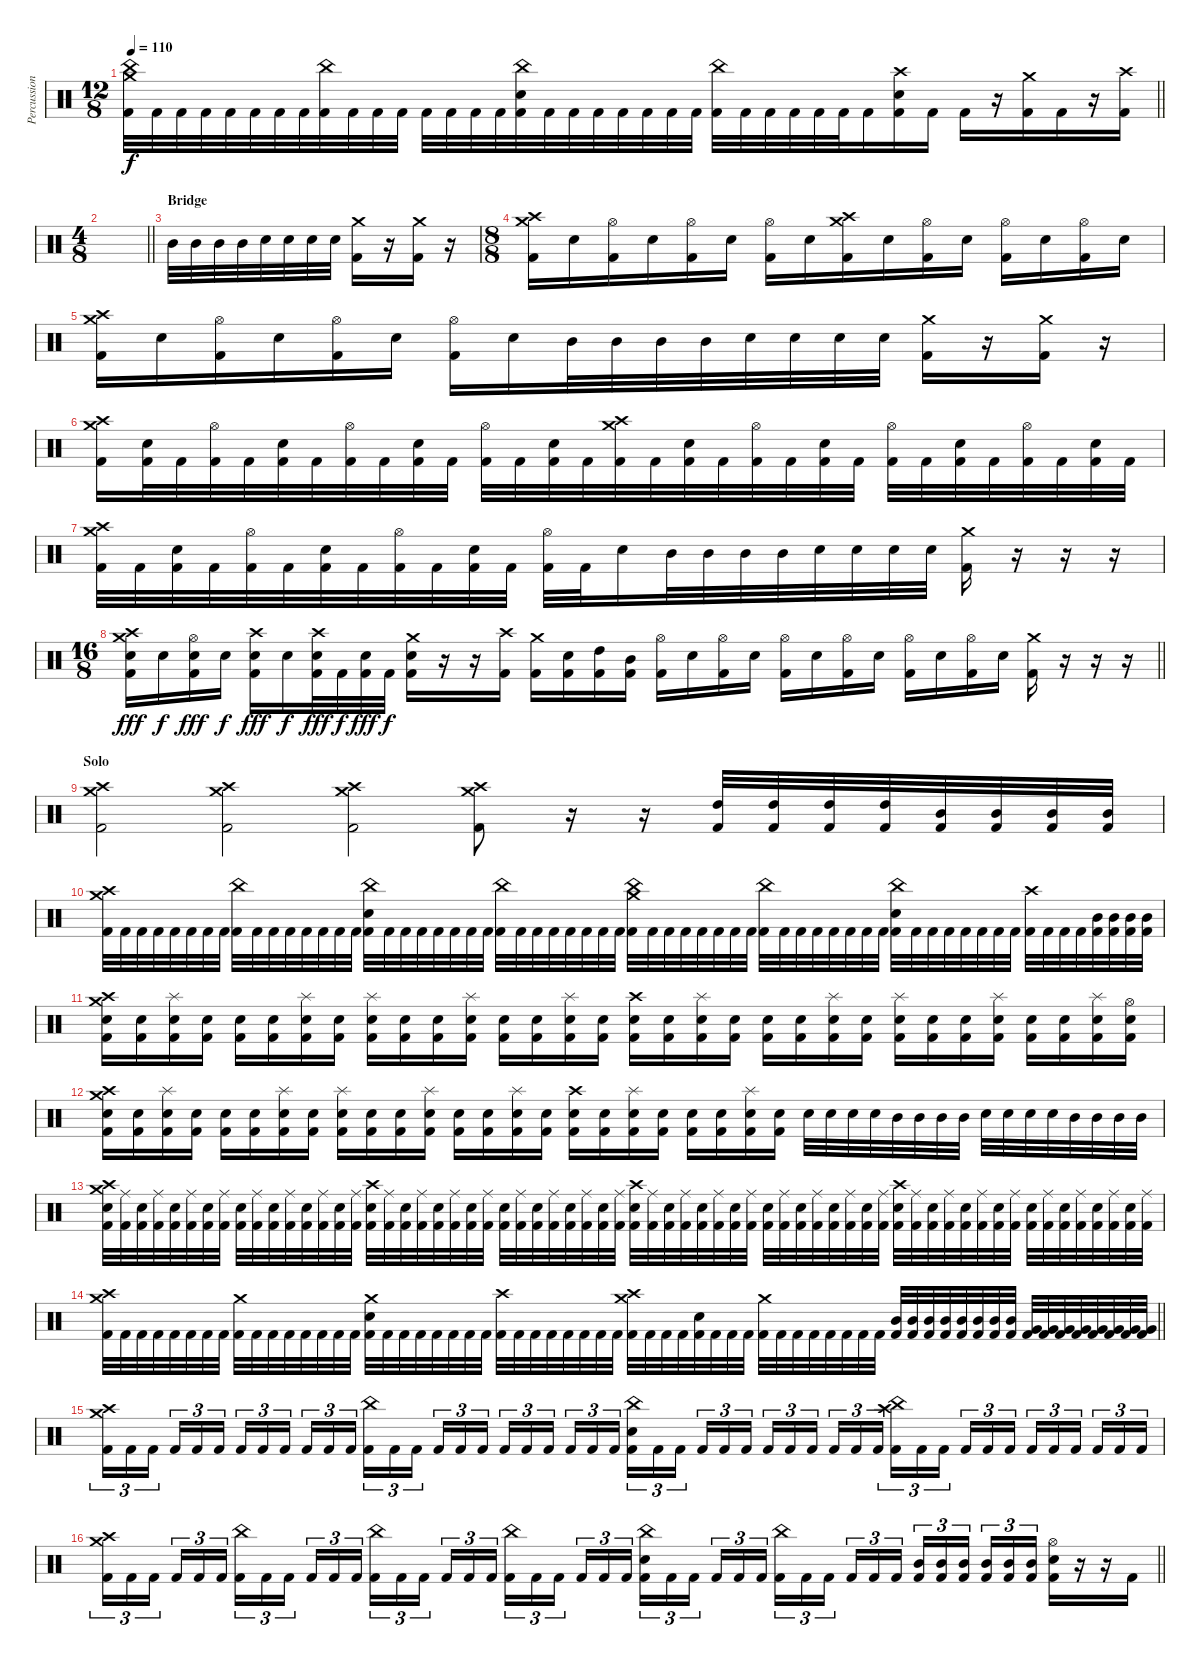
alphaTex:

\track ("Percussion" "Percussion") {instrument percussion}
\staff {score}
\articulation defaults
\ts (12 8)
\tempo 110
\clef neutral
\barLineRight lightlight
\ks c
("Crash medium (hit)" "China (hit)" "Kick (hit) 2").32{dy f} "Kick (hit) 2".32 "Kick (hit) 2".32 "Kick (hit) 2".32 "Kick (hit) 2".32 "Kick (hit) 2".32 "Kick (hit) 2".32 "Kick (hit) 2".32 ("China (hit)" "Kick (hit) 2").32 "Kick (hit) 2".32 "Kick (hit) 2".32 "Kick (hit) 2".32 "Kick (hit) 2".32 "Kick (hit) 2".32 "Kick (hit) 2".32 "Kick (hit) 2".32 ("China (hit)" "Snare (hit) 2" "Kick (hit) 2").32 "Kick (hit) 2".32 "Kick (hit) 2".32 "Kick (hit) 2".32 "Kick (hit) 2".32 "Kick (hit) 2".32 "Kick (hit) 2".32 "Kick (hit) 2".32 ("China (hit)" "Kick (hit) 2").32 "Kick (hit) 2".32 "Kick (hit) 2".32 "Kick (hit) 2".32 "Kick (hit) 2".32 "Kick (hit) 2".32 "Kick (hit) 2".16 ("Crash high (hit)" "Snare (hit) 2" "Kick (hit) 2").16 "Kick (hit) 2".16 "Kick (hit) 2".16 r.16 ("Crash medium (hit)" "Kick (hit) 2").16 "Kick (hit) 2".16 r.16 ("Crash high (hit)" "Kick (hit) 2").16 |
\ts (4 8)
\barLineRight lightlight
|
\section ("" "Bridge")
"Mid Tom (hit)".32 "Mid Tom (hit)".32 "Mid Tom (hit)".32 "Mid Tom (hit)".32 "Snare (hit) 2".32 "Snare (hit) 2".32 "Snare (hit) 2".32 "Snare (hit) 2".32 ("Crash medium (hit)" "Kick (hit) 2").16 r.16{volume 0} ("Crash medium (hit)" "Kick (hit) 2").16{volume 13} r.16{volume 0} |
\ts (8 8)
("Crash medium (hit)" "Crash high (hit)" "Kick (hit) 2").16{volume 13} "Snare (hit) 2".16 ("Hi-Hat (open)" "Kick (hit) 2").16 "Snare (hit) 2".16 ("Hi-Hat (open)" "Kick (hit) 2").16 "Snare (hit) 2".16 ("Hi-Hat (open)" "Kick (hit) 2").16 "Snare (hit) 2".16 ("Crash medium (hit)" "Crash high (hit)" "Kick (hit) 2").16 "Snare (hit) 2".16 ("Hi-Hat (open)" "Kick (hit) 2").16 "Snare (hit) 2".16 ("Hi-Hat (open)" "Kick (hit) 2").16 "Snare (hit) 2".16 ("Hi-Hat (open)" "Kick (hit) 2").16 "Snare (hit) 2".16 |
("Crash medium (hit)" "Crash high (hit)" "Kick (hit) 2").16 "Snare (hit) 2".16 ("Hi-Hat (open)" "Kick (hit) 2").16 "Snare (hit) 2".16 ("Hi-Hat (open)" "Kick (hit) 2").16 "Snare (hit) 2".16 ("Hi-Hat (open)" "Kick (hit) 2").16 "Snare (hit) 2".16 "Mid Tom (hit)".32 "Mid Tom (hit)".32 "Mid Tom (hit)".32 "Mid Tom (hit)".32 "Snare (hit) 2".32 "Snare (hit) 2".32 "Snare (hit) 2".32 "Snare (hit) 2".32 ("Crash medium (hit)" "Kick (hit) 2").16 r.16{volume 0} ("Crash medium (hit)" "Kick (hit) 2").16{volume 13} r.16{volume 0} |
("Crash medium (hit)" "Crash high (hit)" "Kick (hit) 2").16{volume 13} ("Snare (hit) 2" "Kick (hit) 2").32 "Kick (hit) 2".32 ("Hi-Hat (open)" "Kick (hit) 2").32 "Kick (hit) 2".32 ("Snare (hit) 2" "Kick (hit) 2").32 "Kick (hit) 2".32 ("Hi-Hat (open)" "Kick (hit) 2").32 "Kick (hit) 2".32 ("Snare (hit) 2" "Kick (hit) 2").32 "Kick (hit) 2".32 ("Hi-Hat (open)" "Kick (hit) 2").32 "Kick (hit) 2".32 ("Snare (hit) 2" "Kick (hit) 2").32 "Kick (hit) 2".32 ("Crash medium (hit)" "Crash high (hit)" "Kick (hit) 2").32 "Kick (hit) 2".32 ("Snare (hit) 2" "Kick (hit) 2").32 "Kick (hit) 2".32 ("Hi-Hat (open)" "Kick (hit) 2").32 "Kick (hit) 2".32 ("Snare (hit) 2" "Kick (hit) 2").32 "Kick (hit) 2".32 ("Hi-Hat (open)" "Kick (hit) 2").32 "Kick (hit) 2".32 ("Snare (hit) 2" "Kick (hit) 2").32 "Kick (hit) 2".32 ("Hi-Hat (open)" "Kick (hit) 2").32 "Kick (hit) 2".32 ("Snare (hit) 2" "Kick (hit) 2").32 "Kick (hit) 2".32 |
("Crash medium (hit)" "Crash high (hit)" "Kick (hit) 2").32 "Kick (hit) 2".32 ("Snare (hit) 2" "Kick (hit) 2").32 "Kick (hit) 2".32 ("Hi-Hat (open)" "Kick (hit) 2").32 "Kick (hit) 2".32 ("Snare (hit) 2" "Kick (hit) 2").32 "Kick (hit) 2".32 ("Hi-Hat (open)" "Kick (hit) 2").32 "Kick (hit) 2".32 ("Snare (hit) 2" "Kick (hit) 2").32 "Kick (hit) 2".32 ("Hi-Hat (open)" "Kick (hit) 2").32 "Kick (hit) 2".32 "Snare (hit) 2".16 "Mid Tom (hit)".32 "Mid Tom (hit)".32 "Mid Tom (hit)".32 "Mid Tom (hit)".32 "Snare (hit) 2".32 "Snare (hit) 2".32 "Snare (hit) 2".32 "Snare (hit) 2".32 ("Crash medium (hit)" "Kick (hit) 2").16 r.16{volume 0} r.16 r.16 |
\ts (16 8)
\barLineRight lightlight
("Crash medium (hit)" "Crash high (hit)" "Snare (hit) 2" "Kick (hit) 2").16{dy fff volume 13} "Snare (hit) 2".16{dy f} ("Hi-Hat (open)" "Snare (hit) 2" "Kick (hit) 2").16{dy fff} "Snare (hit) 2".16{dy f} ("Crash high (hit)" "Snare (hit) 2" "Kick (hit) 2").16{dy fff} "Snare (hit) 2".16{dy f} ("Crash high (hit)" "Snare (hit) 2" "Kick (hit) 2").32{dy fff} "Kick (hit) 2".32{dy f} ("Snare (hit) 2" "Kick (hit) 2").32{dy fff} "Kick (hit) 2".32{dy f} ("Crash medium (hit)" "Snare (hit) 2" "Kick (hit) 2").16 r.16 r.16 ("Crash high (hit)" "Kick (hit) 2").16 ("Crash medium (hit)" "Kick (hit) 2").16 ("Snare (hit) 2" "Kick (hit) 2").16 ("High Tom (hit)" "Kick (hit) 2").16 ("Mid Tom (hit)" "Kick (hit) 2").16 ("Hi-Hat (open)" "Kick (hit) 2").16 "Snare (hit) 2".16 ("Hi-Hat (open)" "Kick (hit) 2").16 "Snare (hit) 2".16 ("Hi-Hat (open)" "Kick (hit) 2").16 "Snare (hit) 2".16 ("Hi-Hat (open)" "Kick (hit) 2").16 "Snare (hit) 2".16 ("Hi-Hat (open)" "Kick (hit) 2").16 "Snare (hit) 2".16 ("Hi-Hat (open)" "Kick (hit) 2").16 "Snare (hit) 2".16 ("Crash medium (hit)" "Kick (hit) 2").16 r.16 r.16 r.16 |
\section ("" "Solo")
("Crash high (hit)" "Crash medium (hit)" "Kick (hit) 2").2 ("Crash high (hit)" "Crash medium (hit)" "Kick (hit) 2").2 ("Crash medium (hit)" "Crash high (hit)" "Kick (hit) 2").2 ("Crash medium (hit)" "Crash high (hit)" "Kick (hit) 2").8 r.16 r.16 ("High Tom (hit)" "Kick (hit) 2").32 ("High Tom (hit)" "Kick (hit) 2").32 ("High Tom (hit)" "Kick (hit) 2").32 ("High Tom (hit)" "Kick (hit) 2").32 ("Mid Tom (hit)" "Kick (hit) 2").32 ("Mid Tom (hit)" "Kick (hit) 2").32 ("Mid Tom (hit)" "Kick (hit) 2").32 ("Mid Tom (hit)" "Kick (hit) 2").32 |
("Crash medium (hit)" "Crash high (hit)" "Kick (hit) 2").32 "Kick (hit) 2".32 "Kick (hit) 2".32 "Kick (hit) 2".32 "Kick (hit) 2".32 "Kick (hit) 2".32 "Kick (hit) 2".32 "Kick (hit) 2".32 ("China (hit)" "Kick (hit) 2").32 "Kick (hit) 2".32 "Kick (hit) 2".32 "Kick (hit) 2".32 "Kick (hit) 2".32 "Kick (hit) 2".32 "Kick (hit) 2".32 "Kick (hit) 2".32 ("China (hit)" "Snare (hit) 2" "Kick (hit) 2").32 "Kick (hit) 2".32 "Kick (hit) 2".32 "Kick (hit) 2".32 "Kick (hit) 2".32 "Kick (hit) 2".32 "Kick (hit) 2".32 "Kick (hit) 2".32 ("China (hit)" "Kick (hit) 2").32 "Kick (hit) 2".32 "Kick (hit) 2".32 "Kick (hit) 2".32 "Kick (hit) 2".32 "Kick (hit) 2".32 "Kick (hit) 2".32 "Kick (hit) 2".32 ("Crash medium (hit)" "China (hit)" "Kick (hit) 2").32 "Kick (hit) 2".32 "Kick (hit) 2".32 "Kick (hit) 2".32 "Kick (hit) 2".32 "Kick (hit) 2".32 "Kick (hit) 2".32 "Kick (hit) 2".32 ("China (hit)" "Kick (hit) 2").32 "Kick (hit) 2".32 "Kick (hit) 2".32 "Kick (hit) 2".32 "Kick (hit) 2".32 "Kick (hit) 2".32 "Kick (hit) 2".32 "Kick (hit) 2".32 ("China (hit)" "Snare (hit) 2" "Kick (hit) 2").32 "Kick (hit) 2".32 "Kick (hit) 2".32 "Kick (hit) 2".32 "Kick (hit) 2".32 "Kick (hit) 2".32 "Kick (hit) 2".32 "Kick (hit) 2".32 ("Crash high (hit)" "Kick (hit) 2").32 "Kick (hit) 2".32 "Kick (hit) 2".32 "Kick (hit) 2".32 ("Mid Tom (hit)" "Kick (hit) 2").32 ("Mid Tom (hit)" "Kick (hit) 2").32 ("Mid Tom (hit)" "Kick (hit) 2").32 ("Mid Tom (hit)" "Kick (hit) 2").32 |
("Crash medium (hit)" "Crash high (hit)" "Snare (hit) 2" "Kick (hit) 2").16 ("Snare (hit) 2" "Kick (hit) 2").16 ("Splash (hit)" "Snare (hit) 2" "Kick (hit) 2").16 ("Snare (hit) 2" "Kick (hit) 2").16 ("Snare (hit) 2" "Kick (hit) 2").16 ("Snare (hit) 2" "Kick (hit) 2").16 ("Splash (hit)" "Snare (hit) 2" "Kick (hit) 2").16 ("Snare (hit) 2" "Kick (hit) 2").16 ("Splash (hit)" "Snare (hit) 2" "Kick (hit) 2").16 ("Snare (hit) 2" "Kick (hit) 2").16 ("Snare (hit) 2" "Kick (hit) 2").16 ("Splash (hit)" "Snare (hit) 2" "Kick (hit) 2").16 ("Snare (hit) 2" "Kick (hit) 2").16 ("Snare (hit) 2" "Kick (hit) 2").16 ("Splash (hit)" "Snare (hit) 2" "Kick (hit) 2").16 ("Snare (hit) 2" "Kick (hit) 2").16 ("Crash high (hit)" "Snare (hit) 2" "Kick (hit) 2").16 ("Snare (hit) 2" "Kick (hit) 2").16 ("Splash (hit)" "Snare (hit) 2" "Kick (hit) 2").16 ("Snare (hit) 2" "Kick (hit) 2").16 ("Snare (hit) 2" "Kick (hit) 2").16 ("Snare (hit) 2" "Kick (hit) 2").16 ("Splash (hit)" "Snare (hit) 2" "Kick (hit) 2").16 ("Snare (hit) 2" "Kick (hit) 2").16 ("Splash (hit)" "Snare (hit) 2" "Kick (hit) 2").16 ("Snare (hit) 2" "Kick (hit) 2").16 ("Snare (hit) 2" "Kick (hit) 2").16 ("Splash (hit)" "Snare (hit) 2" "Kick (hit) 2").16 ("Snare (hit) 2" "Kick (hit) 2").16 ("Snare (hit) 2" "Kick (hit) 2").16 ("Splash (hit)" "Snare (hit) 2" "Kick (hit) 2").16 ("Hi-Hat (open)" "Snare (hit) 2" "Kick (hit) 2").16 |
("Crash medium (hit)" "Crash high (hit)" "Snare (hit) 2" "Kick (hit) 2").16 ("Snare (hit) 2" "Kick (hit) 2").16 ("Splash (hit)" "Snare (hit) 2" "Kick (hit) 2").16 ("Snare (hit) 2" "Kick (hit) 2").16 ("Snare (hit) 2" "Kick (hit) 2").16 ("Snare (hit) 2" "Kick (hit) 2").16 ("Splash (hit)" "Snare (hit) 2" "Kick (hit) 2").16 ("Snare (hit) 2" "Kick (hit) 2").16 ("Splash (hit)" "Snare (hit) 2" "Kick (hit) 2").16 ("Snare (hit) 2" "Kick (hit) 2").16 ("Snare (hit) 2" "Kick (hit) 2").16 ("Splash (hit)" "Snare (hit) 2" "Kick (hit) 2").16 ("Snare (hit) 2" "Kick (hit) 2").16 ("Snare (hit) 2" "Kick (hit) 2").16 ("Splash (hit)" "Snare (hit) 2" "Kick (hit) 2").16 ("Snare (hit) 2" "Kick (hit) 2").16 ("Crash high (hit)" "Snare (hit) 2" "Kick (hit) 2").16 ("Snare (hit) 2" "Kick (hit) 2").16 ("Splash (hit)" "Snare (hit) 2" "Kick (hit) 2").16 ("Snare (hit) 2" "Kick (hit) 2").16 ("Snare (hit) 2" "Kick (hit) 2").16 ("Snare (hit) 2" "Kick (hit) 2").16 ("Splash (hit)" "Snare (hit) 2" "Kick (hit) 2").16 ("Snare (hit) 2" "Kick (hit) 2").16 "Snare (hit) 2".32 "Snare (hit) 2".32 "Snare (hit) 2".32 "Snare (hit) 2".32 "Mid Tom (hit)".32 "Mid Tom (hit)".32 "Mid Tom (hit)".32 "Mid Tom (hit)".32 "Snare (hit) 2".32 "Snare (hit) 2".32 "Snare (hit) 2".32 "Snare (hit) 2".32 "Mid Tom (hit)".32 "Mid Tom (hit)".32 "Mid Tom (hit)".32 "Mid Tom (hit)".32 |
("Crash medium (hit)" "Crash high (hit)" "Snare (hit) 2" "Kick (hit) 2").32 ("Ride (middle)" "Kick (hit) 2").32 ("Snare (hit) 2" "Kick (hit) 2").32 ("Ride (middle)" "Kick (hit) 2").32 ("Snare (hit) 2" "Kick (hit) 2").32 ("Ride (middle)" "Kick (hit) 2").32 ("Snare (hit) 2" "Kick (hit) 2").32 ("Ride (middle)" "Kick (hit) 2").32 ("Snare (hit) 2" "Kick (hit) 2").32 ("Ride (middle)" "Kick (hit) 2").32 ("Snare (hit) 2" "Kick (hit) 2").32 ("Ride (middle)" "Kick (hit) 2").32 ("Snare (hit) 2" "Kick (hit) 2").32 ("Ride (middle)" "Kick (hit) 2").32 ("Snare (hit) 2" "Kick (hit) 2").32 ("Ride (middle)" "Kick (hit) 2").32 ("Crash high (hit)" "Snare (hit) 2" "Kick (hit) 2").32 ("Ride (middle)" "Kick (hit) 2").32 ("Snare (hit) 2" "Kick (hit) 2").32 ("Ride (middle)" "Kick (hit) 2").32 ("Snare (hit) 2" "Kick (hit) 2").32 ("Ride (middle)" "Kick (hit) 2").32 ("Snare (hit) 2" "Kick (hit) 2").32 ("Ride (middle)" "Kick (hit) 2").32 ("Snare (hit) 2" "Kick (hit) 2").32 ("Ride (middle)" "Kick (hit) 2").32 ("Snare (hit) 2" "Kick (hit) 2").32 ("Ride (middle)" "Kick (hit) 2").32 ("Snare (hit) 2" "Kick (hit) 2").32 ("Ride (middle)" "Kick (hit) 2").32 ("Snare (hit) 2" "Kick (hit) 2").32 ("Ride (middle)" "Kick (hit) 2").32 ("Crash high (hit)" "Snare (hit) 2" "Kick (hit) 2").32 ("Ride (middle)" "Kick (hit) 2").32 ("Snare (hit) 2" "Kick (hit) 2").32 ("Ride (middle)" "Kick (hit) 2").32 ("Snare (hit) 2" "Kick (hit) 2").32 ("Ride (middle)" "Kick (hit) 2").32 ("Snare (hit) 2" "Kick (hit) 2").32 ("Ride (middle)" "Kick (hit) 2").32 ("Snare (hit) 2" "Kick (hit) 2").32 ("Ride (middle)" "Kick (hit) 2").32 ("Snare (hit) 2" "Kick (hit) 2").32 ("Ride (middle)" "Kick (hit) 2").32 ("Snare (hit) 2" "Kick (hit) 2").32 ("Ride (middle)" "Kick (hit) 2").32 ("Snare (hit) 2" "Kick (hit) 2").32 ("Ride (middle)" "Kick (hit) 2").32 ("Crash high (hit)" "Snare (hit) 2" "Kick (hit) 2").32 ("Ride (middle)" "Kick (hit) 2").32 ("Snare (hit) 2" "Kick (hit) 2").32 ("Ride (middle)" "Kick (hit) 2").32 ("Snare (hit) 2" "Kick (hit) 2").32 ("Ride (middle)" "Kick (hit) 2").32 ("Snare (hit) 2" "Kick (hit) 2").32 ("Ride (middle)" "Kick (hit) 2").32 ("Snare (hit) 2" "Kick (hit) 2").32 ("Ride (middle)" "Kick (hit) 2").32 ("Snare (hit) 2" "Kick (hit) 2").32 ("Ride (middle)" "Kick (hit) 2").32 ("Snare (hit) 2" "Kick (hit) 2").32 ("Ride (middle)" "Kick (hit) 2").32 ("Snare (hit) 2" "Kick (hit) 2").32 ("Ride (middle)" "Kick (hit) 2").32 |
\barLineRight lightlight
("Crash medium (hit)" "Crash high (hit)" "Kick (hit) 2").32 "Kick (hit) 2".32 "Kick (hit) 2".32 "Kick (hit) 2".32 "Kick (hit) 2".32 "Kick (hit) 2".32 "Kick (hit) 2".32 "Kick (hit) 2".32 ("Crash medium (hit)" "Kick (hit) 2").32 "Kick (hit) 2".32 "Kick (hit) 2".32 "Kick (hit) 2".32 "Kick (hit) 2".32 "Kick (hit) 2".32 "Kick (hit) 2".32 "Kick (hit) 2".32 ("Crash medium (hit)" "Snare (hit) 2" "Kick (hit) 2").32 "Kick (hit) 2".32 "Kick (hit) 2".32 "Kick (hit) 2".32 "Kick (hit) 2".32 "Kick (hit) 2".32 "Kick (hit) 2".32 "Kick (hit) 2".32 ("Crash high (hit)" "Kick (hit) 2").32 "Kick (hit) 2".32 "Kick (hit) 2".32 "Kick (hit) 2".32 "Kick (hit) 2".32 "Kick (hit) 2".32 "Kick (hit) 2".32 "Kick (hit) 2".32 ("Crash high (hit)" "Crash medium (hit)" "Kick (hit) 2").32 "Kick (hit) 2".32 "Kick (hit) 2".32 "Kick (hit) 2".32 ("Snare (hit) 2" "Kick (hit) 2").32 "Kick (hit) 2".32 "Kick (hit) 2".32 "Kick (hit) 2".32 ("Crash medium (hit)" "Kick (hit) 2").32 "Kick (hit) 2".32 "Kick (hit) 2".32 "Kick (hit) 2".32 "Kick (hit) 2".32 "Kick (hit) 2".32 "Kick (hit) 2".32 "Kick (hit) 2".32 ("Mid Tom (hit)" "Kick (hit) 2").32 ("Mid Tom (hit)" "Kick (hit) 2").32 ("Mid Tom (hit)" "Kick (hit) 2").32 ("Mid Tom (hit)" "Kick (hit) 2").32 ("Mid Tom (hit)" "Kick (hit) 2").32 ("Mid Tom (hit)" "Kick (hit) 2").32 ("Mid Tom (hit)" "Kick (hit) 2").32 ("Mid Tom (hit)" "Kick (hit) 2").32 ("Very Low Tom (hit)" "Kick (hit) 2").32 ("Very Low Tom (hit)" "Kick (hit) 2").32 ("Very Low Tom (hit)" "Kick (hit) 2").32 ("Very Low Tom (hit)" "Kick (hit) 2").32 ("Very Low Tom (hit)" "Kick (hit) 2").32 ("Very Low Tom (hit)" "Kick (hit) 2").32 ("Very Low Tom (hit)" "Kick (hit) 2").32 ("Very Low Tom (hit)" "Kick (hit) 2").32 |
("Crash medium (hit)" "Crash high (hit)" "Kick (hit) 2").16{tu (3 2)} "Kick (hit) 2".16{tu (3 2)} "Kick (hit) 2".16{tu (3 2)} "Kick (hit) 2".16{tu (3 2)} "Kick (hit) 2".16{tu (3 2)} "Kick (hit) 2".16{tu (3 2)} "Kick (hit) 2".16{tu (3 2)} "Kick (hit) 2".16{tu (3 2)} "Kick (hit) 2".16{tu (3 2)} "Kick (hit) 2".16{tu (3 2)} "Kick (hit) 2".16{tu (3 2)} "Kick (hit) 2".16{tu (3 2)} ("China (hit)" "Kick (hit) 2").16{tu (3 2)} "Kick (hit) 2".16{tu (3 2)} "Kick (hit) 2".16{tu (3 2)} "Kick (hit) 2".16{tu (3 2)} "Kick (hit) 2".16{tu (3 2)} "Kick (hit) 2".16{tu (3 2)} "Kick (hit) 2".16{tu (3 2)} "Kick (hit) 2".16{tu (3 2)} "Kick (hit) 2".16{tu (3 2)} "Kick (hit) 2".16{tu (3 2)} "Kick (hit) 2".16{tu (3 2)} "Kick (hit) 2".16{tu (3 2)} ("China (hit)" "Snare (hit) 2" "Kick (hit) 2").16{tu (3 2)} "Kick (hit) 2".16{tu (3 2)} "Kick (hit) 2".16{tu (3 2)} "Kick (hit) 2".16{tu (3 2)} "Kick (hit) 2".16{tu (3 2)} "Kick (hit) 2".16{tu (3 2)} "Kick (hit) 2".16{tu (3 2)} "Kick (hit) 2".16{tu (3 2)} "Kick (hit) 2".16{tu (3 2)} "Kick (hit) 2".16{tu (3 2)} "Kick (hit) 2".16{tu (3 2)} "Kick (hit) 2".16{tu (3 2)} ("Crash high (hit)" "China (hit)" "Kick (hit) 2").16{tu (3 2)} "Kick (hit) 2".16{tu (3 2)} "Kick (hit) 2".16{tu (3 2)} "Kick (hit) 2".16{tu (3 2)} "Kick (hit) 2".16{tu (3 2)} "Kick (hit) 2".16{tu (3 2)} "Kick (hit) 2".16{tu (3 2)} "Kick (hit) 2".16{tu (3 2)} "Kick (hit) 2".16{tu (3 2)} "Kick (hit) 2".16{tu (3 2)} "Kick (hit) 2".16{tu (3 2)} "Kick (hit) 2".16{tu (3 2)} |
\barLineRight lightlight
("Crash medium (hit)" "Crash high (hit)" "Kick (hit) 2").16{tu (3 2)} "Kick (hit) 2".16{tu (3 2)} "Kick (hit) 2".16{tu (3 2)} "Kick (hit) 2".16{tu (3 2)} "Kick (hit) 2".16{tu (3 2)} "Kick (hit) 2".16{tu (3 2)} ("China (hit)" "Kick (hit) 2").16{tu (3 2)} "Kick (hit) 2".16{tu (3 2)} "Kick (hit) 2".16{tu (3 2)} "Kick (hit) 2".16{tu (3 2)} "Kick (hit) 2".16{tu (3 2)} "Kick (hit) 2".16{tu (3 2)} ("China (hit)" "Kick (hit) 2").16{tu (3 2)} "Kick (hit) 2".16{tu (3 2)} "Kick (hit) 2".16{tu (3 2)} "Kick (hit) 2".16{tu (3 2)} "Kick (hit) 2".16{tu (3 2)} "Kick (hit) 2".16{tu (3 2)} ("China (hit)" "Kick (hit) 2").16{tu (3 2)} "Kick (hit) 2".16{tu (3 2)} "Kick (hit) 2".16{tu (3 2)} "Kick (hit) 2".16{tu (3 2)} "Kick (hit) 2".16{tu (3 2)} "Kick (hit) 2".16{tu (3 2)} ("China (hit)" "Snare (hit) 2" "Kick (hit) 2").16{tu (3 2)} "Kick (hit) 2".16{tu (3 2)} "Kick (hit) 2".16{tu (3 2)} "Kick (hit) 2".16{tu (3 2)} "Kick (hit) 2".16{tu (3 2)} "Kick (hit) 2".16{tu (3 2)} ("China (hit)" "Kick (hit) 2").16{tu (3 2)} "Kick (hit) 2".16{tu (3 2)} "Kick (hit) 2".16{tu (3 2)} "Kick (hit) 2".16{tu (3 2)} "Kick (hit) 2".16{tu (3 2)} "Kick (hit) 2".16{tu (3 2)} ("Mid Tom (hit)" "Kick (hit) 2").16{tu (3 2)} ("Mid Tom (hit)" "Kick (hit) 2").16{tu (3 2)} ("Mid Tom (hit)" "Kick (hit) 2").16{tu (3 2)} ("Mid Tom (hit)" "Kick (hit) 2").16{tu (3 2)} ("Mid Tom (hit)" "Kick (hit) 2").16{tu (3 2)} ("Mid Tom (hit)" "Kick (hit) 2").16{tu (3 2)} ("Hi-Hat (open)" "Snare (hit) 2" "Kick (hit) 2").16 r.16 r.16 "Kick (hit) 2".16
